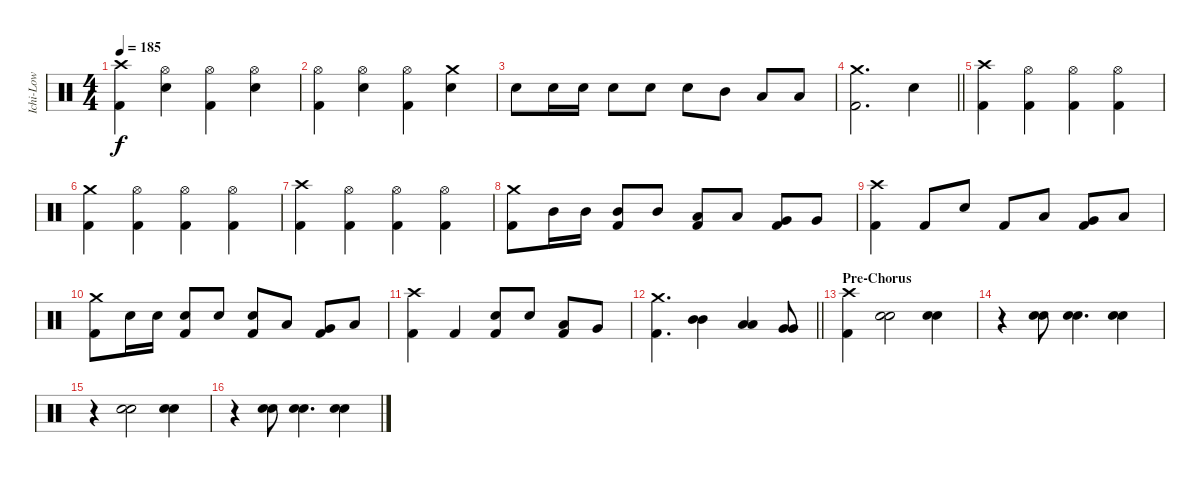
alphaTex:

\track ("Ichi-Low" "Ichi-Low") {instrument percussion}
\staff {score}
\articulation defaults
\ts (4 4)
\tempo 185
\clef neutral
\ks c
("Crash high (hit)" "Kick (hit) 2").4{dy f} ("Hi-Hat (open)" "Electric Snare (hit)").4 ("Hi-Hat (open)" "Kick (hit) 2").4 ("Hi-Hat (open)" "Electric Snare (hit)").4 |
("Hi-Hat (open)" "Kick (hit) 2").4 ("Hi-Hat (open)" "Electric Snare (hit)").4 ("Hi-Hat (open)" "Kick (hit) 2").4 ("Crash medium (hit)" "Electric Snare (hit)").4 |
"Electric Snare (hit)".8 "Electric Snare (hit)".16 "Electric Snare (hit)".16 "Electric Snare (hit)".8 "Electric Snare (hit)".8 "Electric Snare (hit)".8 "Mid Tom (hit)".8 "Low Tom (hit)".8 "Low Floor Tom (hit)".8 |
\barLineRight lightlight
("Crash medium (hit)" "Kick (hit) 2").2{d} "Electric Snare (hit)".4 |
\section ("" "")
("Crash high (hit)" "Kick (hit) 2").4 ("Hi-Hat (open)" "Kick (hit) 2").4 ("Hi-Hat (open)" "Kick (hit) 2").4 ("Hi-Hat (open)" "Kick (hit) 2").4 |
("Crash medium (hit)" "Kick (hit) 2").4 ("Hi-Hat (open)" "Kick (hit) 2").4 ("Hi-Hat (open)" "Kick (hit) 2").4 ("Hi-Hat (open)" "Kick (hit) 2").4 |
("Crash high (hit)" "Kick (hit) 2").4 ("Hi-Hat (open)" "Kick (hit) 2").4 ("Hi-Hat (open)" "Kick (hit) 2").4 ("Hi-Hat (open)" "Kick (hit) 2").4 |
("Crash medium (hit)" "Kick (hit) 2").8 "Mid Tom (hit)".16 "Mid Tom (hit)".16 ("Mid Tom (hit)" "Kick (hit) 2").8 "Mid Tom (hit)".8 ("Low Tom (hit)" "Kick (hit) 2").8 "Low Tom (hit)".8 ("Very Low Tom (hit)" "Kick (hit) 2").8 "Very Low Tom (hit)".8 |
("Crash high (hit)" "Kick (hit) 2").4 "Kick (hit) 2".8 "Electric Snare (hit)".8 "Kick (hit) 2".8 "Low Tom (hit)".8 ("Very Low Tom (hit)" "Kick (hit) 2").8 "Low Floor Tom (hit)".8 |
("Crash medium (hit)" "Kick (hit) 2").8 "Electric Snare (hit)".16 "Electric Snare (hit)".16 ("Electric Snare (hit)" "Kick (hit) 2").8 "Electric Snare (hit)".8 ("Electric Snare (hit)" "Kick (hit) 2").8 "Low Tom (hit)".8 ("Very Low Tom (hit)" "Kick (hit) 2").8 "Low Floor Tom (hit)".8 |
("Crash high (hit)" "Kick (hit) 2").4 "Kick (hit) 2".4 ("Electric Snare (hit)" "Kick (hit) 2").8 "Electric Snare (hit)".8 ("Low Tom (hit)" "Kick (hit) 2").8 "Very Low Tom (hit)".8 |
\barLineRight lightlight
("Crash medium (hit)" "Kick (hit) 2").4{d} ("Mid Tom (hit)" "Mid Tom (hit)").4 ("Low Tom (hit)" "Low Tom (hit)").4 ("Very Low Tom (hit)" "Very Low Tom (hit)").8 |
\section ("" "Pre-Chorus")
("Crash high (hit)" "Kick (hit) 2").4 ("Hand Clap (hit)" "Hand Clap (hit)").2 ("Hand Clap (hit)" "Hand Clap (hit)").4 |
r.4 ("Hand Clap (hit)" "Hand Clap (hit)").8 ("Hand Clap (hit)" "Hand Clap (hit)").4{d} ("Hand Clap (hit)" "Hand Clap (hit)").4 |
r.4 ("Hand Clap (hit)" "Hand Clap (hit)").2 ("Hand Clap (hit)" "Hand Clap (hit)").4 |
r.4 ("Hand Clap (hit)" "Hand Clap (hit)").8 ("Hand Clap (hit)" "Hand Clap (hit)").4{d} ("Hand Clap (hit)" "Hand Clap (hit)").4
